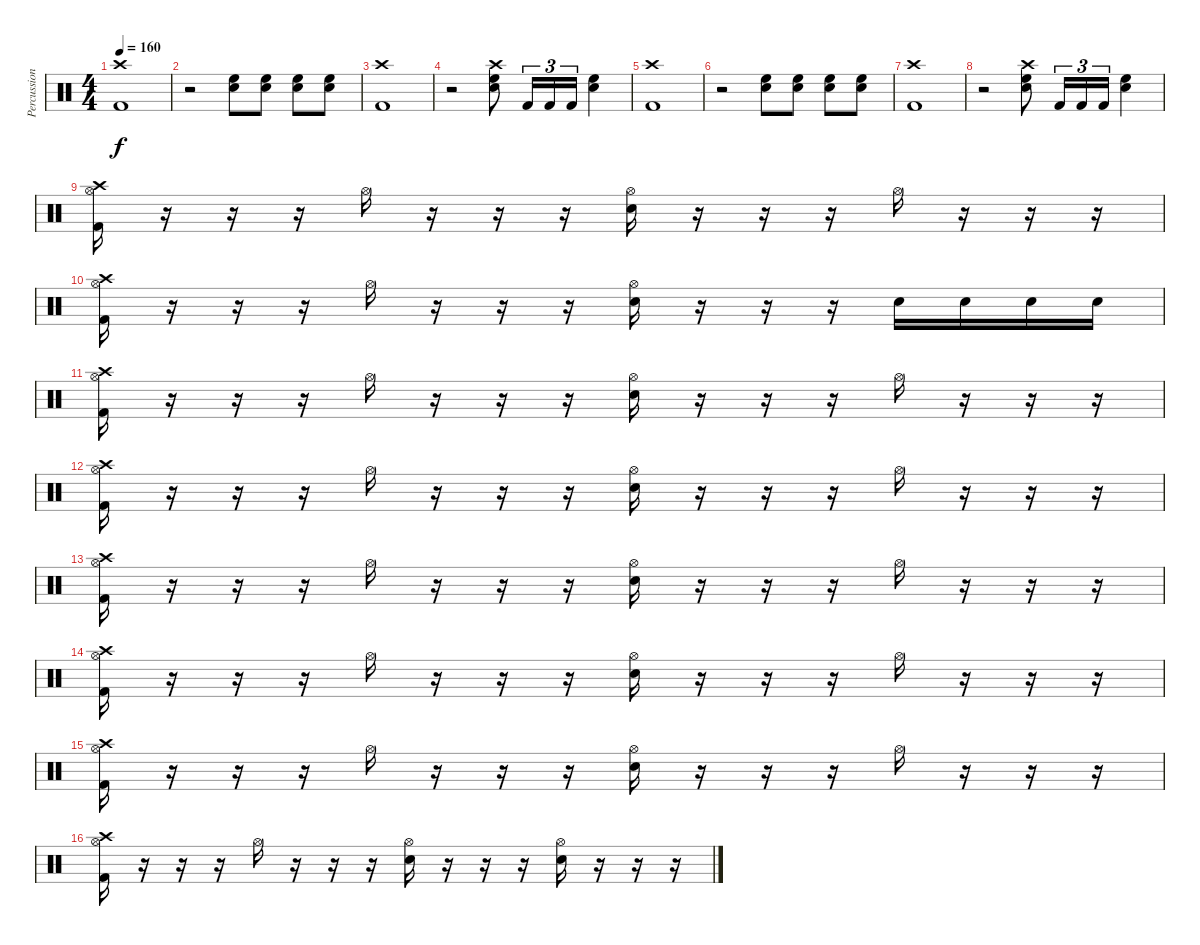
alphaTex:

\track ("Percussion" "Percussion") {instrument percussion}
\staff {score}
\articulation defaults
\ts (4 4)
\tempo 160
\clef neutral
\ks c
("Kick (hit) 2" "Crash high (hit)").1{dy f} |
r.2 ("Electric Snare (hit)" "High Floor Tom (hit)").8 ("Electric Snare (hit)" "High Floor Tom (hit)").8 ("Electric Snare (hit)" "High Floor Tom (hit)").8 ("Electric Snare (hit)" "High Floor Tom (hit)").8 |
("Kick (hit) 2" "Crash high (hit)").1 |
r.2 ("Electric Snare (hit)" "High Floor Tom (hit)" "Crash high (hit)").8 "Kick (hit) 2".16{tu (3 2)} "Kick (hit) 2".16{tu (3 2)} "Kick (hit) 2".16{tu (3 2)} ("Electric Snare (hit)" "High Floor Tom (hit)").4 |
("Kick (hit) 2" "Crash high (hit)").1 |
r.2 ("Electric Snare (hit)" "High Floor Tom (hit)").8 ("Electric Snare (hit)" "High Floor Tom (hit)").8 ("Electric Snare (hit)" "High Floor Tom (hit)").8 ("Electric Snare (hit)" "High Floor Tom (hit)").8 |
("Kick (hit) 2" "Crash high (hit)").1 |
r.2 ("Electric Snare (hit)" "High Floor Tom (hit)" "Crash high (hit)").8 "Kick (hit) 2".16{tu (3 2)} "Kick (hit) 2".16{tu (3 2)} "Kick (hit) 2".16{tu (3 2)} ("Electric Snare (hit)" "High Floor Tom (hit)").4 |
("Kick (hit) 2" "Hi-Hat (open)" "Crash high (hit)").16 r.16 r.16 r.16 "Hi-Hat (open)".16 r.16 r.16 r.16 ("Electric Snare (hit)" "Hi-Hat (open)").16 r.16 r.16 r.16 "Hi-Hat (open)".16 r.16 r.16 r.16 |
("Kick (hit) 2" "Hi-Hat (open)" "Crash high (hit)").16 r.16 r.16 r.16 "Hi-Hat (open)".16 r.16 r.16 r.16 ("Electric Snare (hit)" "Hi-Hat (open)").16 r.16 r.16 r.16 "Electric Snare (hit)".16 "Electric Snare (hit)".16 "Electric Snare (hit)".16 "Electric Snare (hit)".16 |
("Kick (hit) 2" "Hi-Hat (open)" "Crash high (hit)").16 r.16 r.16 r.16 "Hi-Hat (open)".16 r.16 r.16 r.16 ("Electric Snare (hit)" "Hi-Hat (open)").16 r.16 r.16 r.16 "Hi-Hat (open)".16 r.16 r.16 r.16 |
("Kick (hit) 2" "Hi-Hat (open)" "Crash high (hit)").16 r.16 r.16 r.16 "Hi-Hat (open)".16 r.16 r.16 r.16 ("Electric Snare (hit)" "Hi-Hat (open)").16 r.16 r.16 r.16 "Hi-Hat (open)".16 r.16 r.16 r.16 |
("Kick (hit) 2" "Hi-Hat (open)" "Crash high (hit)").16 r.16 r.16 r.16 "Hi-Hat (open)".16 r.16 r.16 r.16 ("Electric Snare (hit)" "Hi-Hat (open)").16 r.16 r.16 r.16 "Hi-Hat (open)".16 r.16 r.16 r.16 |
("Kick (hit) 2" "Hi-Hat (open)" "Crash high (hit)").16 r.16 r.16 r.16 "Hi-Hat (open)".16 r.16 r.16 r.16 ("Electric Snare (hit)" "Hi-Hat (open)").16 r.16 r.16 r.16 "Hi-Hat (open)".16 r.16 r.16 r.16 |
("Kick (hit) 2" "Hi-Hat (open)" "Crash high (hit)").16 r.16 r.16 r.16 "Hi-Hat (open)".16 r.16 r.16 r.16 ("Electric Snare (hit)" "Hi-Hat (open)").16 r.16 r.16 r.16 "Hi-Hat (open)".16 r.16 r.16 r.16 |
("Kick (hit) 2" "Hi-Hat (open)" "Crash high (hit)").16 r.16 r.16 r.16 "Hi-Hat (open)".16 r.16 r.16 r.16 ("Electric Snare (hit)" "Hi-Hat (open)").16 r.16 r.16 r.16 ("Electric Snare (hit)" "Hi-Hat (open)").16 r.16 r.16 r.16
